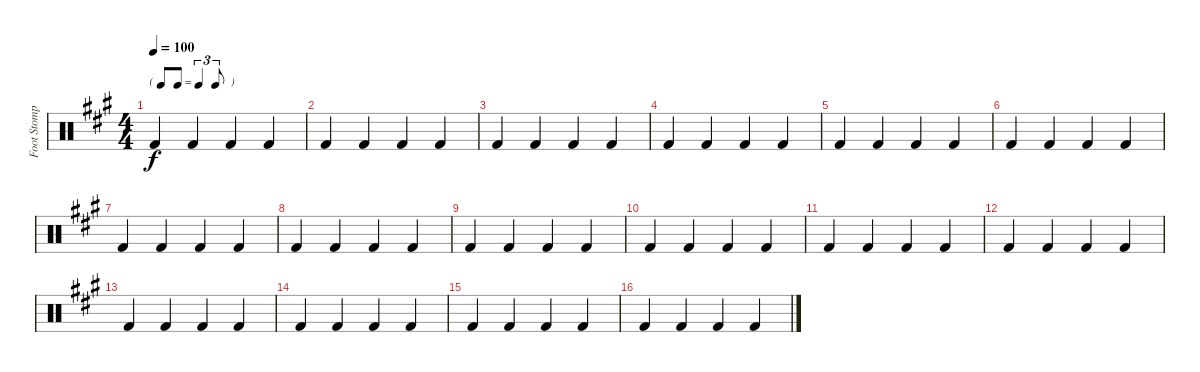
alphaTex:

\track ("Foot Stomp" "Foot Stomp") {instrument percussion}
\staff {score}
\articulation defaults
\ts (4 4)
\tf triplet8th
\tempo 100
\clef neutral
\ks a "Kick (hit) 2".4{dy f} "Kick (hit) 2".4 "Kick (hit) 2".4 "Kick (hit) 2".4
|
"Kick (hit) 2".4 "Kick (hit) 2".4 "Kick (hit) 2".4 "Kick (hit) 2".4 |
"Kick (hit) 2".4 "Kick (hit) 2".4 "Kick (hit) 2".4 "Kick (hit) 2".4 |
"Kick (hit) 2".4 "Kick (hit) 2".4 "Kick (hit) 2".4 "Kick (hit) 2".4 |
"Kick (hit) 2".4 "Kick (hit) 2".4 "Kick (hit) 2".4 "Kick (hit) 2".4 |
"Kick (hit) 2".4 "Kick (hit) 2".4 "Kick (hit) 2".4 "Kick (hit) 2".4 |
"Kick (hit) 2".4 "Kick (hit) 2".4 "Kick (hit) 2".4 "Kick (hit) 2".4 |
"Kick (hit) 2".4 "Kick (hit) 2".4 "Kick (hit) 2".4 "Kick (hit) 2".4 |
"Kick (hit) 2".4 "Kick (hit) 2".4 "Kick (hit) 2".4 "Kick (hit) 2".4 |
"Kick (hit) 2".4 "Kick (hit) 2".4 "Kick (hit) 2".4 "Kick (hit) 2".4 |
"Kick (hit) 2".4 "Kick (hit) 2".4 "Kick (hit) 2".4 "Kick (hit) 2".4 |
"Kick (hit) 2".4 "Kick (hit) 2".4 "Kick (hit) 2".4 "Kick (hit) 2".4 |
"Kick (hit) 2".4 "Kick (hit) 2".4 "Kick (hit) 2".4 "Kick (hit) 2".4 |
"Kick (hit) 2".4 "Kick (hit) 2".4 "Kick (hit) 2".4 "Kick (hit) 2".4 |
"Kick (hit) 2".4 "Kick (hit) 2".4 "Kick (hit) 2".4 "Kick (hit) 2".4 |
"Kick (hit) 2".4 "Kick (hit) 2".4 "Kick (hit) 2".4 "Kick (hit) 2".4
